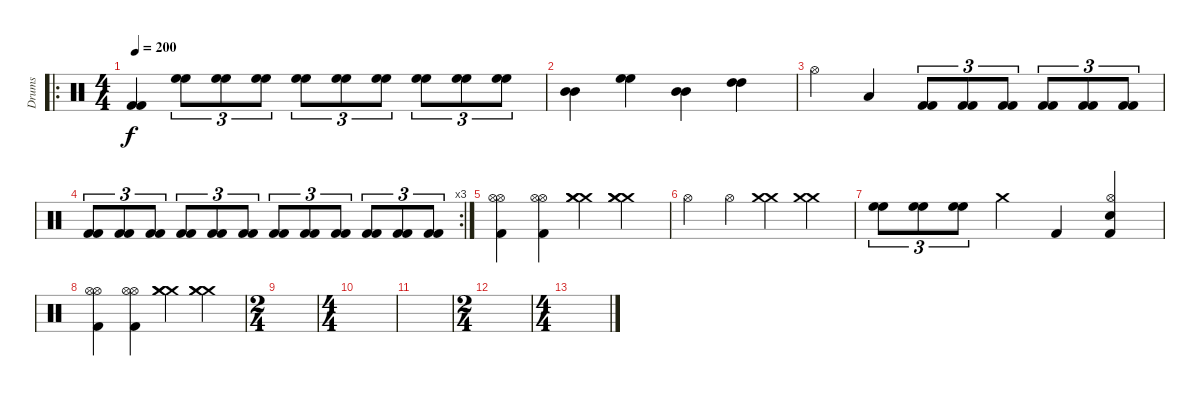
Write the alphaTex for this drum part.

\track ("Drums" "Drums") {instrument percussion}
\staff {score}
\articulation defaults
\ro
\ts (4 4)
\tempo 200
\clef neutral
\ks c
("Kick (hit) 2" "Kick (hit) 2").4{dy f} ("High Floor Tom (hit)" "High Floor Tom (hit)").8{tu (3 2)} ("High Floor Tom (hit)" "High Floor Tom (hit)").8{tu (3 2)} ("High Floor Tom (hit)" "High Floor Tom (hit)").8{tu (3 2)} ("High Floor Tom (hit)" "High Floor Tom (hit)").8{tu (3 2)} ("High Floor Tom (hit)" "High Floor Tom (hit)").8{tu (3 2)} ("High Floor Tom (hit)" "High Floor Tom (hit)").8{tu (3 2)} ("High Floor Tom (hit)" "High Floor Tom (hit)").8{tu (3 2)} ("High Floor Tom (hit)" "High Floor Tom (hit)").8{tu (3 2)} ("High Floor Tom (hit)" "High Floor Tom (hit)").8{tu (3 2)} |
("Mid Tom (hit)" "Mid Tom (hit)").4 ("High Floor Tom (hit)" "High Floor Tom (hit)").4 ("Mid Tom (hit)" "Mid Tom (hit)").4 ("High Tom (hit)" "High Tom (hit)").4 |
"Hi-Hat (open)".4 "Low Tom (hit)".4 ("Kick (hit) 2" "Kick (hit) 2").8{tu (3 2)} ("Kick (hit) 2" "Kick (hit) 2").8{tu (3 2)} ("Kick (hit) 2" "Kick (hit) 2").8{tu (3 2)} ("Kick (hit) 2" "Kick (hit) 2").8{tu (3 2)} ("Kick (hit) 2" "Kick (hit) 2").8{tu (3 2)} ("Kick (hit) 2" "Kick (hit) 2").8{tu (3 2)} |
\rc 3
("Kick (hit) 2" "Kick (hit) 2").8{tu (3 2)} ("Kick (hit) 2" "Kick (hit) 2").8{tu (3 2)} ("Kick (hit) 2" "Kick (hit) 2").8{tu (3 2)} ("Kick (hit) 2" "Kick (hit) 2").8{tu (3 2)} ("Kick (hit) 2" "Kick (hit) 2").8{tu (3 2)} ("Kick (hit) 2" "Kick (hit) 2").8{tu (3 2)} ("Kick (hit) 2" "Kick (hit) 2").8{tu (3 2)} ("Kick (hit) 2" "Kick (hit) 2").8{tu (3 2)} ("Kick (hit) 2" "Kick (hit) 2").8{tu (3 2)} ("Kick (hit) 2" "Kick (hit) 2").8{tu (3 2)} ("Kick (hit) 2" "Kick (hit) 2").8{tu (3 2)} ("Kick (hit) 2" "Kick (hit) 2").8{tu (3 2)} |
("Hi-Hat (open)" "Hi-Hat (open)" "Kick (hit) 2").4 ("Hi-Hat (open)" "Hi-Hat (open)" "Kick (hit) 2").4 ("Crash medium (hit)" "Crash medium (hit)" "Crash medium (hit)").4 ("Crash medium (hit)" "Crash medium (hit)" "Crash medium (hit)").4 |
"Hi-Hat (open)".4 "Hi-Hat (open)".4 ("Crash medium (hit)" "Crash medium (hit)").4 ("Crash medium (hit)" "Crash medium (hit)").4 |
("High Floor Tom (hit)" "High Floor Tom (hit)").8{tu (3 2)} ("High Floor Tom (hit)" "High Floor Tom (hit)").8{tu (3 2)} ("High Floor Tom (hit)" "High Floor Tom (hit)").8{tu (3 2)} "Crash medium (hit)".4 "Kick (hit) 2".4 ("Hi-Hat (open)" "Electric Snare (hit)" "Kick (hit) 2").4 |
("Hi-Hat (open)" "Hi-Hat (open)" "Kick (hit) 2").4 ("Hi-Hat (open)" "Hi-Hat (open)" "Kick (hit) 2").4 ("Crash medium (hit)" "Crash medium (hit)" "Crash medium (hit)").4 ("Crash medium (hit)" "Crash medium (hit)" "Crash medium (hit)").4 |
\ts (2 4)
|
\ts (4 4)
|
|
\ts (2 4)
|
\ts (4 4)
